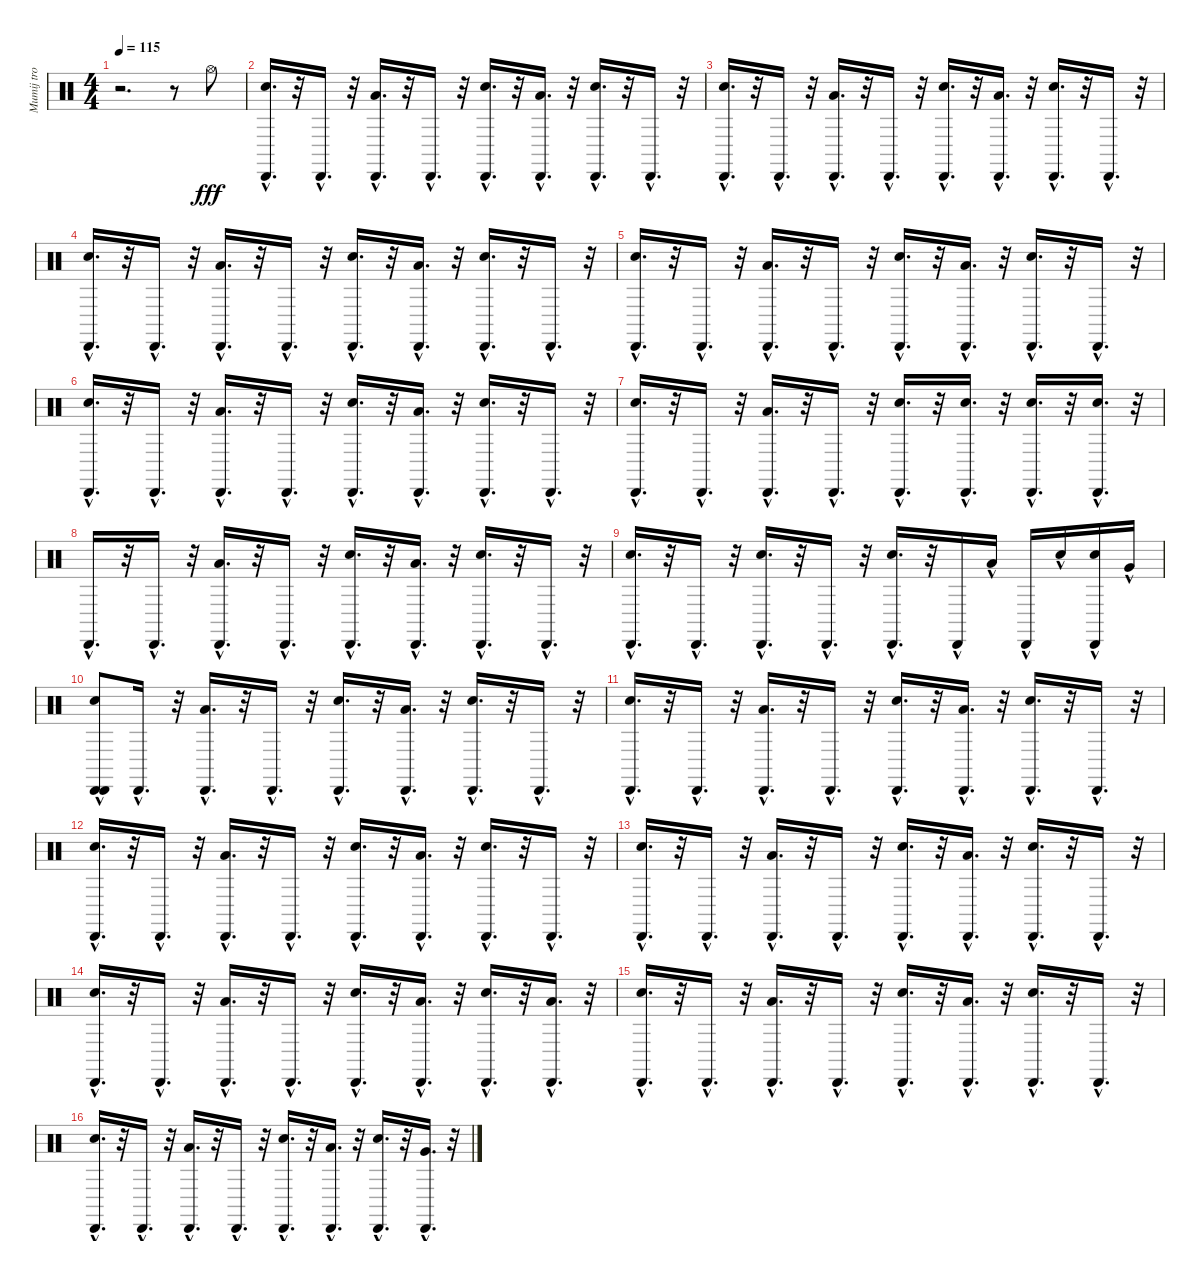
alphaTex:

\track (" Mumij troll" " Mumij tro") {instrument percussion}
\staff {score}
\articulation defaults
\ts (4 4)
\tempo 115
\clef neutral
\ks c
r.2{d dy fff} r.8 "Hi-Hat (open)".8 |
("Electric Snare (hit)"{hac} "Cabasa (hit)"{hac}).16{d} r.32 "Cabasa (hit)"{hac}.16{d} r.32 ("Low Tom (hit)"{hac} "Cabasa (hit)"{hac}).16{d} r.32 "Cabasa (hit)"{hac}.16{d} r.32 ("Electric Snare (hit)"{hac} "Cabasa (hit)"{hac}).16{d} r.32 ("Low Floor Tom (hit)"{hac} "Cabasa (hit)"{hac}).16{d} r.32 ("Snare (hit) 2"{hac} "Cabasa (hit)"{hac}).16{d} r.32 "Cabasa (hit)"{hac}.16{d} r.32 |
("Electric Snare (hit)"{hac} "Cabasa (hit)"{hac}).16{d} r.32 "Cabasa (hit)"{hac}.16{d} r.32 ("Low Tom (hit)"{hac} "Cabasa (hit)"{hac}).16{d} r.32 "Cabasa (hit)"{hac}.16{d} r.32 ("Electric Snare (hit)"{hac} "Cabasa (hit)"{hac}).16{d} r.32 ("Low Floor Tom (hit)"{hac} "Cabasa (hit)"{hac}).16{d} r.32 ("Snare (hit) 2"{hac} "Cabasa (hit)"{hac}).16{d} r.32 "Cabasa (hit)"{hac}.16{d} r.32 |
("Electric Snare (hit)"{hac} "Cabasa (hit)"{hac}).16{d} r.32 "Cabasa (hit)"{hac}.16{d} r.32 ("Low Tom (hit)"{hac} "Cabasa (hit)"{hac}).16{d} r.32 "Cabasa (hit)"{hac}.16{d} r.32 ("Electric Snare (hit)"{hac} "Cabasa (hit)"{hac}).16{d} r.32 ("Low Floor Tom (hit)"{hac} "Cabasa (hit)"{hac}).16{d} r.32 ("Snare (hit) 2"{hac} "Cabasa (hit)"{hac}).16{d} r.32 "Cabasa (hit)"{hac}.16{d} r.32 |
("Electric Snare (hit)"{hac} "Cabasa (hit)"{hac}).16{d} r.32 "Cabasa (hit)"{hac}.16{d} r.32 ("Low Tom (hit)"{hac} "Cabasa (hit)"{hac}).16{d} r.32 "Cabasa (hit)"{hac}.16{d} r.32 ("Electric Snare (hit)"{hac} "Cabasa (hit)"{hac}).16{d} r.32 ("Low Floor Tom (hit)"{hac} "Cabasa (hit)"{hac}).16{d} r.32 ("Snare (hit) 2"{hac} "Cabasa (hit)"{hac}).16{d} r.32 "Cabasa (hit)"{hac}.16{d} r.32 |
("Electric Snare (hit)"{hac} "Cabasa (hit)"{hac}).16{d} r.32 "Cabasa (hit)"{hac}.16{d} r.32 ("Low Tom (hit)"{hac} "Cabasa (hit)"{hac}).16{d} r.32 "Cabasa (hit)"{hac}.16{d} r.32 ("Electric Snare (hit)"{hac} "Cabasa (hit)"{hac}).16{d} r.32 ("Low Floor Tom (hit)"{hac} "Cabasa (hit)"{hac}).16{d} r.32 ("Snare (hit) 2"{hac} "Cabasa (hit)"{hac}).16{d} r.32 "Cabasa (hit)"{hac}.16{d} r.32 |
("Electric Snare (hit)"{hac} "Cabasa (hit)"{hac}).16{d} r.32 "Cabasa (hit)"{hac}.16{d} r.32 ("Low Tom (hit)"{hac} "Cabasa (hit)"{hac}).16{d} r.32 "Cabasa (hit)"{hac}.16{d} r.32 ("Electric Snare (hit)"{hac} "Cabasa (hit)"{hac}).16{d} r.32 ("Electric Snare (hit)"{hac} "Cabasa (hit)"{hac}).16{d} r.32 ("Electric Snare (hit)"{hac} "Cabasa (hit)"{hac}).16{d} r.32 ("Electric Snare (hit)"{hac} "Cabasa (hit)"{hac}).16{d} r.32 |
"Cabasa (hit)"{hac}.16{d} r.32 "Cabasa (hit)"{hac}.16{d} r.32 ("Low Tom (hit)"{hac} "Cabasa (hit)"{hac}).16{d} r.32 "Cabasa (hit)"{hac}.16{d} r.32 ("Electric Snare (hit)"{hac} "Cabasa (hit)"{hac}).16{d} r.32 ("Low Floor Tom (hit)"{hac} "Cabasa (hit)"{hac}).16{d} r.32 ("Snare (hit) 2"{hac} "Cabasa (hit)"{hac}).16{d} r.32 "Cabasa (hit)"{hac}.16{d} r.32 |
("Electric Snare (hit)"{hac} "Cabasa (hit)"{hac}).16{d} r.32 "Cabasa (hit)"{hac}.16{d} r.32 ("Snare (hit) 2"{hac} "Cabasa (hit)"{hac}).16{d} r.32 "Cabasa (hit)"{hac}.16{d} r.32 ("Electric Snare (hit)"{hac} "Cabasa (hit)"{hac}).16{d} r.32 "Cabasa (hit)"{hac}.16 "Low Floor Tom (hit)"{hac}.16 "Cabasa (hit)"{hac}.16 "Snare (hit) 2"{hac}.16 ("Electric Snare (hit)"{hac} "Cabasa (hit)"{hac}).16 "Very Low Tom (hit)"{hac}.16 |
("Cabasa (hit)" "Electric Snare (hit)"{hac} "Cabasa (hit)"{hac}).8 "Cabasa (hit)"{hac}.16{d} r.32 ("Low Tom (hit)"{hac} "Cabasa (hit)"{hac}).16{d} r.32 "Cabasa (hit)"{hac}.16{d} r.32 ("Electric Snare (hit)"{hac} "Cabasa (hit)"{hac}).16{d} r.32 ("Low Floor Tom (hit)"{hac} "Cabasa (hit)"{hac}).16{d} r.32 ("Snare (hit) 2"{hac} "Cabasa (hit)"{hac}).16{d} r.32 "Cabasa (hit)"{hac}.16{d} r.32 |
("Electric Snare (hit)"{hac} "Cabasa (hit)"{hac}).16{d} r.32 "Cabasa (hit)"{hac}.16{d} r.32 ("Low Tom (hit)"{hac} "Cabasa (hit)"{hac}).16{d} r.32 "Cabasa (hit)"{hac}.16{d} r.32 ("Electric Snare (hit)"{hac} "Cabasa (hit)"{hac}).16{d} r.32 ("Low Floor Tom (hit)"{hac} "Cabasa (hit)"{hac}).16{d} r.32 ("Snare (hit) 2"{hac} "Cabasa (hit)"{hac}).16{d} r.32 "Cabasa (hit)"{hac}.16{d} r.32 |
("Electric Snare (hit)"{hac} "Cabasa (hit)"{hac}).16{d} r.32 "Cabasa (hit)"{hac}.16{d} r.32 ("Low Tom (hit)"{hac} "Cabasa (hit)"{hac}).16{d} r.32 "Cabasa (hit)"{hac}.16{d} r.32 ("Electric Snare (hit)"{hac} "Cabasa (hit)"{hac}).16{d} r.32 ("Low Floor Tom (hit)"{hac} "Cabasa (hit)"{hac}).16{d} r.32 ("Snare (hit) 2"{hac} "Cabasa (hit)"{hac}).16{d} r.32 "Cabasa (hit)"{hac}.16{d} r.32 |
("Electric Snare (hit)"{hac} "Cabasa (hit)"{hac}).16{d} r.32 "Cabasa (hit)"{hac}.16{d} r.32 ("Low Tom (hit)"{hac} "Cabasa (hit)"{hac}).16{d} r.32 "Cabasa (hit)"{hac}.16{d} r.32 ("Electric Snare (hit)"{hac} "Cabasa (hit)"{hac}).16{d} r.32 ("Low Floor Tom (hit)"{hac} "Cabasa (hit)"{hac}).16{d} r.32 ("Snare (hit) 2"{hac} "Cabasa (hit)"{hac}).16{d} r.32 "Cabasa (hit)"{hac}.16{d} r.32 |
("Electric Snare (hit)"{hac} "Cabasa (hit)"{hac}).16{d} r.32 "Cabasa (hit)"{hac}.16{d} r.32 ("Low Tom (hit)"{hac} "Cabasa (hit)"{hac}).16{d} r.32 "Cabasa (hit)"{hac}.16{d} r.32 ("Electric Snare (hit)"{hac} "Cabasa (hit)"{hac}).16{d} r.32 ("Low Floor Tom (hit)"{hac} "Cabasa (hit)"{hac}).16{d} r.32 ("Snare (hit) 2"{hac} "Cabasa (hit)"{hac}).16{d} r.32 ("Low Tom (hit)"{hac} "Cabasa (hit)"{hac}).16{d} r.32 |
("Electric Snare (hit)"{hac} "Cabasa (hit)"{hac}).16{d} r.32 "Cabasa (hit)"{hac}.16{d} r.32 ("Low Tom (hit)"{hac} "Cabasa (hit)"{hac}).16{d} r.32 "Cabasa (hit)"{hac}.16{d} r.32 ("Electric Snare (hit)"{hac} "Cabasa (hit)"{hac}).16{d} r.32 ("Low Floor Tom (hit)"{hac} "Cabasa (hit)"{hac}).16{d} r.32 ("Snare (hit) 2"{hac} "Cabasa (hit)"{hac}).16{d} r.32 "Cabasa (hit)"{hac}.16{d} r.32 |
("Electric Snare (hit)"{hac} "Cabasa (hit)"{hac}).16{d} r.32 "Cabasa (hit)"{hac}.16{d} r.32 ("Low Tom (hit)"{hac} "Cabasa (hit)"{hac}).16{d} r.32 "Cabasa (hit)"{hac}.16{d} r.32 ("Electric Snare (hit)"{hac} "Cabasa (hit)"{hac}).16{d} r.32 ("Low Floor Tom (hit)"{hac} "Cabasa (hit)"{hac}).16{d} r.32 ("Snare (hit) 2"{hac} "Cabasa (hit)"{hac}).16{d} r.32 ("Very Low Tom (hit)"{hac} "Cabasa (hit)"{hac}).16{d} r.32
